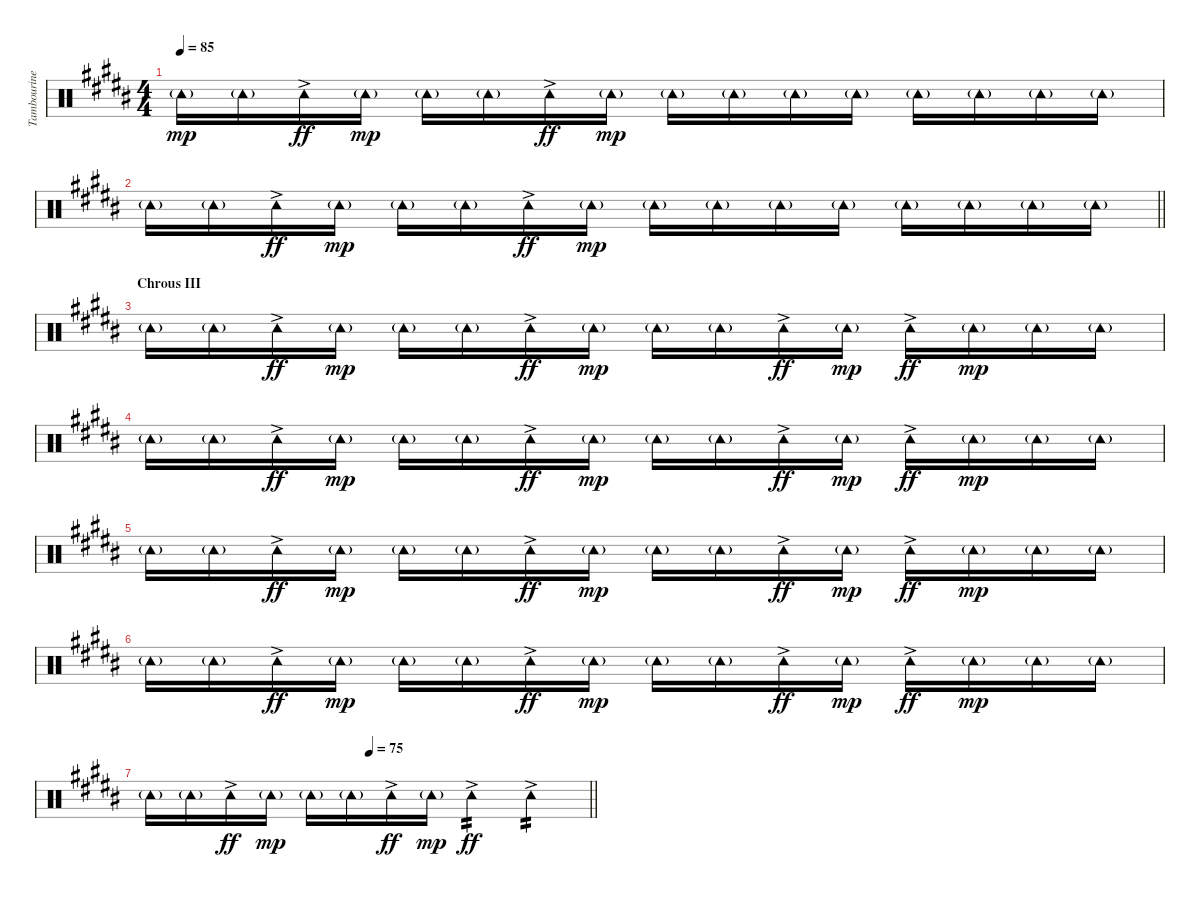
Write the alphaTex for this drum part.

\track ("Tambourine" "Tambourine") {instrument percussion}
\staff {score}
\articulation defaults
\ts (4 4)
\tempo 85
\clef neutral
\ks b "Tambourine (hit)"{g}.16{dy mp} "Tambourine (hit)"{g}.16 "Tambourine (hit)"{ac}.16{dy ff} "Tambourine (hit)"{g}.16{dy mp} "Tambourine (hit)"{g}.16 "Tambourine (hit)"{g}.16 "Tambourine (hit)"{ac}.16{dy ff} "Tambourine (hit)"{g}.16{dy mp} "Tambourine (hit)"{g}.16 "Tambourine (hit)"{g}.16 "Tambourine (hit)"{g}.16 "Tambourine (hit)"{g}.16 "Tambourine (hit)"{g}.16 "Tambourine (hit)"{g}.16 "Tambourine (hit)"{g}.16 "Tambourine (hit)"{g}.16
|
\barLineRight lightlight "Tambourine (hit)"{g}.16 "Tambourine (hit)"{g}.16 "Tambourine (hit)"{ac}.16{dy ff} "Tambourine (hit)"{g}.16{dy mp} "Tambourine (hit)"{g}.16 "Tambourine (hit)"{g}.16 "Tambourine (hit)"{ac}.16{dy ff} "Tambourine (hit)"{g}.16{dy mp} "Tambourine (hit)"{g}.16 "Tambourine (hit)"{g}.16 "Tambourine (hit)"{g}.16 "Tambourine (hit)"{g}.16 "Tambourine (hit)"{g}.16 "Tambourine (hit)"{g}.16 "Tambourine (hit)"{g}.16 "Tambourine (hit)"{g}.16
|
\section ("" "Chrous III")
"Tambourine (hit)"{g}.16 "Tambourine (hit)"{g}.16 "Tambourine (hit)"{ac}.16{dy ff} "Tambourine (hit)"{g}.16{dy mp} "Tambourine (hit)"{g}.16 "Tambourine (hit)"{g}.16 "Tambourine (hit)"{ac}.16{dy ff} "Tambourine (hit)"{g}.16{dy mp} "Tambourine (hit)"{g}.16 "Tambourine (hit)"{g}.16 "Tambourine (hit)"{ac}.16{dy ff} "Tambourine (hit)"{g}.16{dy mp} "Tambourine (hit)"{ac}.16{dy ff} "Tambourine (hit)"{g}.16{dy mp} "Tambourine (hit)"{g}.16 "Tambourine (hit)"{g}.16 |
"Tambourine (hit)"{g}.16 "Tambourine (hit)"{g}.16 "Tambourine (hit)"{ac}.16{dy ff} "Tambourine (hit)"{g}.16{dy mp} "Tambourine (hit)"{g}.16 "Tambourine (hit)"{g}.16 "Tambourine (hit)"{ac}.16{dy ff} "Tambourine (hit)"{g}.16{dy mp} "Tambourine (hit)"{g}.16 "Tambourine (hit)"{g}.16 "Tambourine (hit)"{ac}.16{dy ff} "Tambourine (hit)"{g}.16{dy mp} "Tambourine (hit)"{ac}.16{dy ff} "Tambourine (hit)"{g}.16{dy mp} "Tambourine (hit)"{g}.16 "Tambourine (hit)"{g}.16 |
"Tambourine (hit)"{g}.16 "Tambourine (hit)"{g}.16 "Tambourine (hit)"{ac}.16{dy ff} "Tambourine (hit)"{g}.16{dy mp} "Tambourine (hit)"{g}.16 "Tambourine (hit)"{g}.16 "Tambourine (hit)"{ac}.16{dy ff} "Tambourine (hit)"{g}.16{dy mp} "Tambourine (hit)"{g}.16 "Tambourine (hit)"{g}.16 "Tambourine (hit)"{ac}.16{dy ff} "Tambourine (hit)"{g}.16{dy mp} "Tambourine (hit)"{ac}.16{dy ff} "Tambourine (hit)"{g}.16{dy mp} "Tambourine (hit)"{g}.16 "Tambourine (hit)"{g}.16 |
"Tambourine (hit)"{g}.16 "Tambourine (hit)"{g}.16 "Tambourine (hit)"{ac}.16{dy ff} "Tambourine (hit)"{g}.16{dy mp} "Tambourine (hit)"{g}.16 "Tambourine (hit)"{g}.16 "Tambourine (hit)"{ac}.16{dy ff} "Tambourine (hit)"{g}.16{dy mp} "Tambourine (hit)"{g}.16 "Tambourine (hit)"{g}.16 "Tambourine (hit)"{ac}.16{dy ff} "Tambourine (hit)"{g}.16{dy mp} "Tambourine (hit)"{ac}.16{dy ff} "Tambourine (hit)"{g}.16{dy mp} "Tambourine (hit)"{g}.16 "Tambourine (hit)"{g}.16 |
\tempo (75 0.5)
\barLineRight lightlight "Tambourine (hit)"{g}.16 "Tambourine (hit)"{g}.16 "Tambourine (hit)"{ac}.16{dy ff} "Tambourine (hit)"{g}.16{dy mp} "Tambourine (hit)"{g}.16 "Tambourine (hit)"{g}.16 "Tambourine (hit)"{ac}.16{dy ff} "Tambourine (hit)"{g}.16{dy mp} "Tambourine (hit)"{ac}.4{tp 2 dy ff} "Tambourine (hit)"{ac}.4{tp 2}
